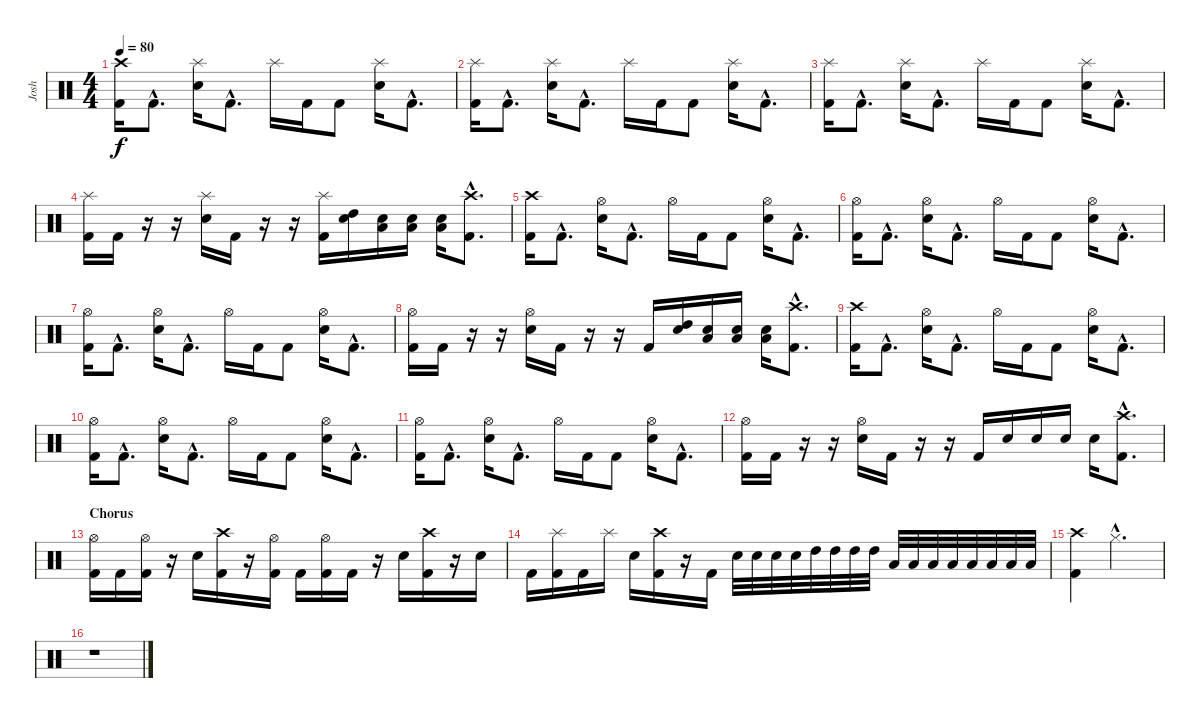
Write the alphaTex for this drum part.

\track ("Josh" "Josh") {instrument percussion}
\staff {score}
\articulation defaults
\ts (4 4)
\tempo 80
\clef neutral
\ks c
("Crash high (hit)" "Kick (hit) 2").16{dy f} "Kick (hit) 2"{hac}.8{d} ("Splash (hit)" "Electric Snare (hit)").16 "Kick (hit) 2"{hac}.8{d} "Splash (hit)".16 "Kick (hit) 2".16 "Kick (hit) 2".8 ("Splash (hit)" "Electric Snare (hit)").16 "Kick (hit) 2"{hac}.8{d} |
("Splash (hit)" "Kick (hit) 2").16 "Kick (hit) 2"{hac}.8{d} ("Splash (hit)" "Electric Snare (hit)").16 "Kick (hit) 2"{hac}.8{d} "Splash (hit)".16 "Kick (hit) 2".16 "Kick (hit) 2".8 ("Splash (hit)" "Electric Snare (hit)").16 "Kick (hit) 2"{hac}.8{d} |
("Splash (hit)" "Kick (hit) 2").16 "Kick (hit) 2"{hac}.8{d} ("Splash (hit)" "Electric Snare (hit)").16 "Kick (hit) 2"{hac}.8{d} "Splash (hit)".16 "Kick (hit) 2".16 "Kick (hit) 2".8 ("Splash (hit)" "Electric Snare (hit)").16 "Kick (hit) 2"{hac}.8{d} |
("Splash (hit)" "Kick (hit) 2").16 "Kick (hit) 2".16 r.16 r.16 ("Splash (hit)" "Electric Snare (hit)").16 "Kick (hit) 2".16 r.16 r.16 ("Splash (hit)" "Kick (hit) 2").16 ("High Tom (hit)" "Electric Snare (hit)").16 ("Electric Snare (hit)" "Low Floor Tom (hit)").16 ("Electric Snare (hit)" "Low Floor Tom (hit)").16 ("Electric Snare (hit)" "Low Floor Tom (hit)").16 ("Crash high (hit)"{hac} "Kick (hit) 2"{hac}).8{d} |
("Crash high (hit)" "Kick (hit) 2").16 "Kick (hit) 2"{hac}.8{d} ("Hi-Hat (open)" "Electric Snare (hit)").16 "Kick (hit) 2"{hac}.8{d} "Hi-Hat (open)".16 "Kick (hit) 2".16 "Kick (hit) 2".8 ("Hi-Hat (open)" "Electric Snare (hit)").16 "Kick (hit) 2"{hac}.8{d} |
("Hi-Hat (open)" "Kick (hit) 2").16 "Kick (hit) 2"{hac}.8{d} ("Hi-Hat (open)" "Electric Snare (hit)").16 "Kick (hit) 2"{hac}.8{d} "Hi-Hat (open)".16 "Kick (hit) 2".16 "Kick (hit) 2".8 ("Hi-Hat (open)" "Electric Snare (hit)").16 "Kick (hit) 2"{hac}.8{d} |
("Hi-Hat (open)" "Kick (hit) 2").16 "Kick (hit) 2"{hac}.8{d} ("Hi-Hat (open)" "Electric Snare (hit)").16 "Kick (hit) 2"{hac}.8{d} "Hi-Hat (open)".16 "Kick (hit) 2".16 "Kick (hit) 2".8 ("Hi-Hat (open)" "Electric Snare (hit)").16 "Kick (hit) 2"{hac}.8{d} |
("Hi-Hat (open)" "Kick (hit) 2").16 "Kick (hit) 2".16 r.16 r.16 ("Hi-Hat (open)" "Electric Snare (hit)").16 "Kick (hit) 2".16 r.16 r.16 "Kick (hit) 2".16 ("High Tom (hit)" "Electric Snare (hit)").16 ("Electric Snare (hit)" "Low Floor Tom (hit)").16 ("Electric Snare (hit)" "Low Floor Tom (hit)").16 ("Electric Snare (hit)" "Low Floor Tom (hit)").16 ("Crash high (hit)"{hac} "Kick (hit) 2"{hac}).8{d} |
("Crash high (hit)" "Kick (hit) 2").16 "Kick (hit) 2"{hac}.8{d} ("Hi-Hat (open)" "Electric Snare (hit)").16 "Kick (hit) 2"{hac}.8{d} "Hi-Hat (open)".16 "Kick (hit) 2".16 "Kick (hit) 2".8 ("Hi-Hat (open)" "Electric Snare (hit)").16 "Kick (hit) 2"{hac}.8{d} |
("Hi-Hat (open)" "Kick (hit) 2").16 "Kick (hit) 2"{hac}.8{d} ("Hi-Hat (open)" "Electric Snare (hit)").16 "Kick (hit) 2"{hac}.8{d} "Hi-Hat (open)".16 "Kick (hit) 2".16 "Kick (hit) 2".8 ("Hi-Hat (open)" "Electric Snare (hit)").16 "Kick (hit) 2"{hac}.8{d} |
("Hi-Hat (open)" "Kick (hit) 2").16 "Kick (hit) 2"{hac}.8{d} ("Hi-Hat (open)" "Electric Snare (hit)").16 "Kick (hit) 2"{hac}.8{d} "Hi-Hat (open)".16 "Kick (hit) 2".16 "Kick (hit) 2".8 ("Hi-Hat (open)" "Electric Snare (hit)").16 "Kick (hit) 2"{hac}.8{d} |
("Hi-Hat (open)" "Kick (hit) 2").16 "Kick (hit) 2".16 r.16 r.16 ("Hi-Hat (open)" "Electric Snare (hit)").16 "Kick (hit) 2".16 r.16 r.16 "Kick (hit) 2".16 "Electric Snare (hit)".16 "Electric Snare (hit)".16 "Electric Snare (hit)".16 "Electric Snare (hit)".16 ("Crash high (hit)"{hac} "Kick (hit) 2"{hac}).8{d} |
\section ("" "Chorus")
("Hi-Hat (open)" "Kick (hit) 2").16 "Kick (hit) 2".16 ("Hi-Hat (open)" "Kick (hit) 2").16 r.16 "Electric Snare (hit)".16 ("Crash high (hit)" "Kick (hit) 2").16 r.16 ("Hi-Hat (open)" "Kick (hit) 2").16 "Kick (hit) 2".16 ("Hi-Hat (open)" "Kick (hit) 2").16 "Kick (hit) 2".16 r.16 "Electric Snare (hit)".16 ("Crash high (hit)" "Kick (hit) 2").16 r.16 "Electric Snare (hit)".16 |
"Kick (hit) 2".16 ("Splash (hit)" "Kick (hit) 2").16 "Kick (hit) 2".16 "Splash (hit)".16 "Electric Snare (hit)".16 ("Crash high (hit)" "Kick (hit) 2").16 r.16 "Kick (hit) 2".16 "Electric Snare (hit)".32 "Electric Snare (hit)".32 "Electric Snare (hit)".32 "Electric Snare (hit)".32 "High Tom (hit)".32 "High Tom (hit)".32 "High Tom (hit)".32 "High Tom (hit)".32 "Low Floor Tom (hit)".32 "Low Floor Tom (hit)".32 "Low Floor Tom (hit)".32 "Low Floor Tom (hit)".32 "Low Floor Tom (hit)".32 "Low Floor Tom (hit)".32 "Low Floor Tom (hit)".32 "Low Floor Tom (hit)".32 |
("Crash high (hit)" "Kick (hit) 2").4 "Hi-Hat (closed)"{hac}.2{d} |
r.1
